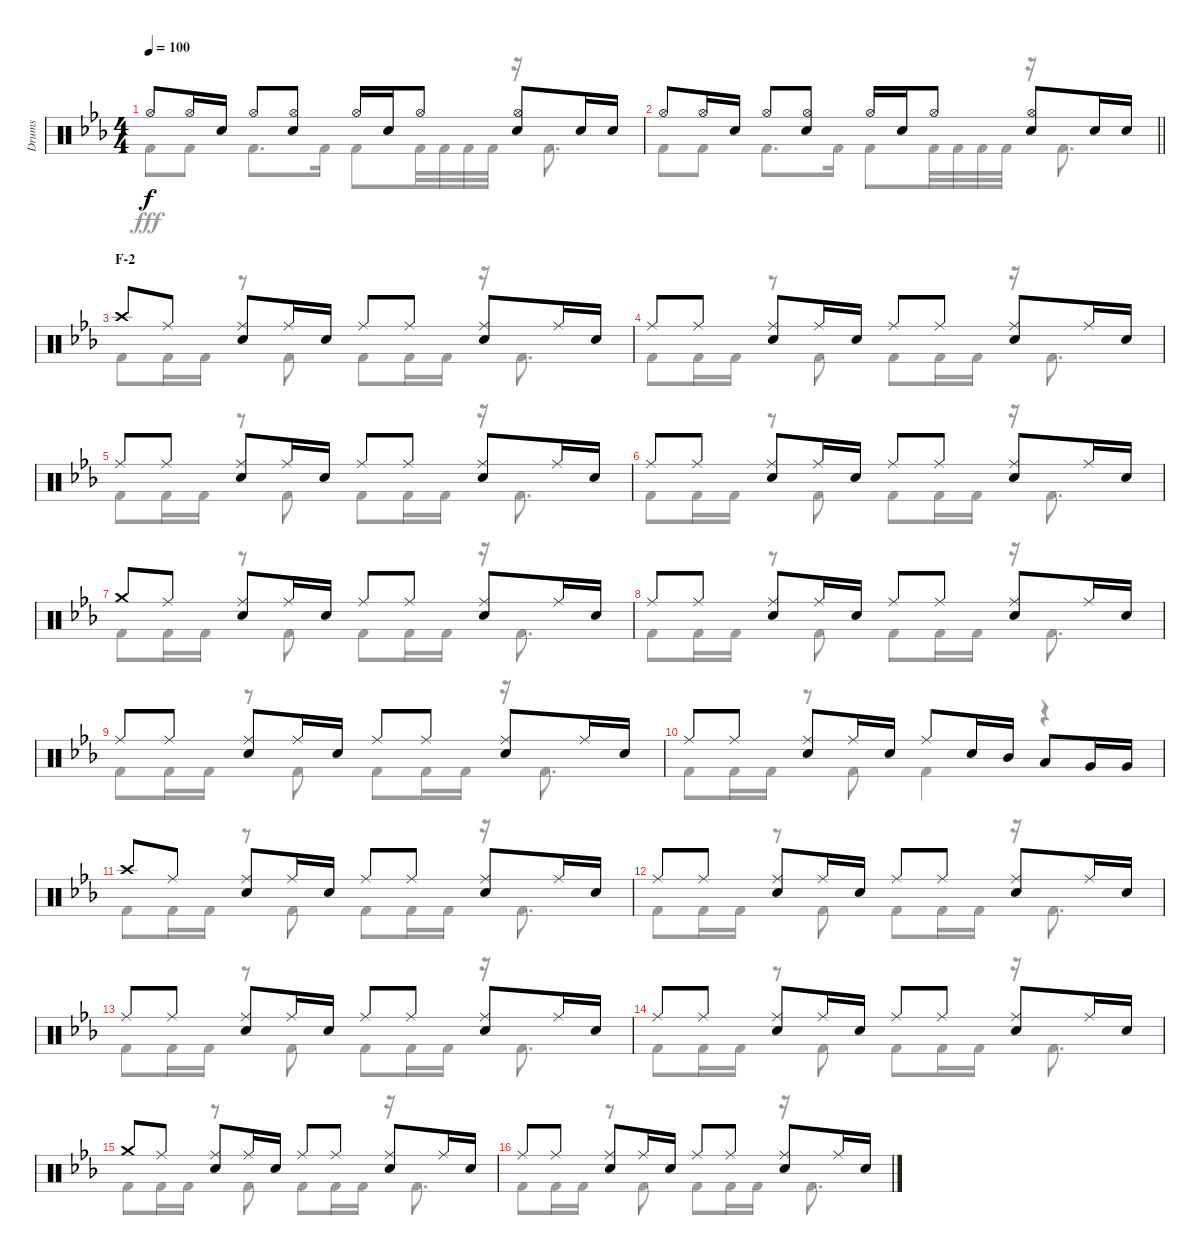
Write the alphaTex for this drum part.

\track ("Drums" "Drums") {instrument percussion}
\staff {score}
\articulation defaults
\voice
\ts (4 4)
\tempo 100
\clef neutral
\ks eb "Hi-Hat (open)".8{dy f} "Hi-Hat (open)".16 "Snare (hit) 2".16 "Hi-Hat (open)".8
("Hi-Hat (open)" "Snare (hit) 2").8 "Hi-Hat (open)".16 "Snare (hit) 2".16 "Hi-Hat (open)".8 ("Hi-Hat (open)" "Snare (hit) 2").8 "Snare (hit) 2".16 "Snare (hit) 2".16 |
\barLineRight lightlight "Hi-Hat (open)".8 "Hi-Hat (open)".16 "Snare (hit) 2".16 "Hi-Hat (open)".8
("Hi-Hat (open)" "Snare (hit) 2").8 "Hi-Hat (open)".16 "Snare (hit) 2".16 "Hi-Hat (open)".8 ("Hi-Hat (open)" "Snare (hit) 2").8 "Snare (hit) 2".16 "Snare (hit) 2".16 |
\section ("" "F-2")
"Crash high (hit)".8 "Ride (middle)".8 ("Ride (middle)" "Snare (hit) 2").8 "Ride (middle)".16 "Snare (hit) 2".16 "Ride (middle)".8 "Ride (middle)".8 ("Ride (middle)" "Snare (hit) 2").8 "Ride (middle)".16 "Snare (hit) 2".16 |
"Ride (middle)".8 "Ride (middle)".8 ("Ride (middle)" "Snare (hit) 2").8 "Ride (middle)".16 "Snare (hit) 2".16 "Ride (middle)".8 "Ride (middle)".8 ("Ride (middle)" "Snare (hit) 2").8 "Ride (middle)".16 "Snare (hit) 2".16 |
"Ride (middle)".8 "Ride (middle)".8 ("Ride (middle)" "Snare (hit) 2").8 "Ride (middle)".16 "Snare (hit) 2".16 "Ride (middle)".8 "Ride (middle)".8 ("Ride (middle)" "Snare (hit) 2").8 "Ride (middle)".16 "Snare (hit) 2".16 |
"Ride (middle)".8 "Ride (middle)".8 ("Ride (middle)" "Snare (hit) 2").8 "Ride (middle)".16 "Snare (hit) 2".16 "Ride (middle)".8 "Ride (middle)".8 ("Ride (middle)" "Snare (hit) 2").8 "Ride (middle)".16 "Snare (hit) 2".16 |
"Crash medium (hit)".8 "Ride (middle)".8 ("Ride (middle)" "Snare (hit) 2").8 "Ride (middle)".16 "Snare (hit) 2".16 "Ride (middle)".8 "Ride (middle)".8 ("Ride (middle)" "Snare (hit) 2").8 "Ride (middle)".16 "Snare (hit) 2".16 |
"Ride (middle)".8 "Ride (middle)".8 ("Ride (middle)" "Snare (hit) 2").8 "Ride (middle)".16 "Snare (hit) 2".16 "Ride (middle)".8 "Ride (middle)".8 ("Ride (middle)" "Snare (hit) 2").8 "Ride (middle)".16 "Snare (hit) 2".16 |
"Ride (middle)".8 "Ride (middle)".8 ("Ride (middle)" "Snare (hit) 2").8 "Ride (middle)".16 "Snare (hit) 2".16 "Ride (middle)".8 "Ride (middle)".8 ("Ride (middle)" "Snare (hit) 2").8 "Ride (middle)".16 "Snare (hit) 2".16 |
"Ride (middle)".8 "Ride (middle)".8 ("Ride (middle)" "Snare (hit) 2").8 "Ride (middle)".16 "Snare (hit) 2".16 "Ride (middle)".8 "Snare (hit) 2".16 "Mid Tom (hit)".16 "Low Tom (hit)".8 "Very Low Tom (hit)".16 "Very Low Tom (hit)".16 |
"Crash high (hit)".8 "Ride (middle)".8 ("Ride (middle)" "Snare (hit) 2").8 "Ride (middle)".16 "Snare (hit) 2".16 "Ride (middle)".8 "Ride (middle)".8 ("Ride (middle)" "Snare (hit) 2").8 "Ride (middle)".16 "Snare (hit) 2".16 |
"Ride (middle)".8 "Ride (middle)".8 ("Ride (middle)" "Snare (hit) 2").8 "Ride (middle)".16 "Snare (hit) 2".16 "Ride (middle)".8 "Ride (middle)".8 ("Ride (middle)" "Snare (hit) 2").8 "Ride (middle)".16 "Snare (hit) 2".16 |
"Ride (middle)".8 "Ride (middle)".8 ("Ride (middle)" "Snare (hit) 2").8 "Ride (middle)".16 "Snare (hit) 2".16 "Ride (middle)".8 "Ride (middle)".8 ("Ride (middle)" "Snare (hit) 2").8 "Ride (middle)".16 "Snare (hit) 2".16 |
"Ride (middle)".8 "Ride (middle)".8 ("Ride (middle)" "Snare (hit) 2").8 "Ride (middle)".16 "Snare (hit) 2".16 "Ride (middle)".8 "Ride (middle)".8 ("Ride (middle)" "Snare (hit) 2").8 "Ride (middle)".16 "Snare (hit) 2".16 |
"Crash medium (hit)".8 "Ride (middle)".8 ("Ride (middle)" "Snare (hit) 2").8 "Ride (middle)".16 "Snare (hit) 2".16 "Ride (middle)".8 "Ride (middle)".8 ("Ride (middle)" "Snare (hit) 2").8 "Ride (middle)".16 "Snare (hit) 2".16 |
"Ride (middle)".8 "Ride (middle)".8 ("Ride (middle)" "Snare (hit) 2").8 "Ride (middle)".16 "Snare (hit) 2".16 "Ride (middle)".8 "Ride (middle)".8 ("Ride (middle)" "Snare (hit) 2").8 "Ride (middle)".16 "Snare (hit) 2".16
\voice
\clef neutral
\ottava regular
\simile none
\ks eb "Kick (hit) 2".8{dy fff} "Kick (hit) 2".8 "Kick (hit) 2".8{d} "Kick (hit) 2".16 "Kick (hit) 2".8 "Kick (hit) 2".32 "Kick (hit) 2".32 "Kick (hit) 2".32 "Kick (hit) 2".32
r.16 "Kick (hit) 2".8{d} |
\barLineRight lightlight "Kick (hit) 2".8 "Kick (hit) 2".8 "Kick (hit) 2".8{d} "Kick (hit) 2".16 "Kick (hit) 2".8 "Kick (hit) 2".32 "Kick (hit) 2".32 "Kick (hit) 2".32 "Kick (hit) 2".32
r.16 "Kick (hit) 2".8{d} |
"Kick (hit) 2".8 "Kick (hit) 2".16 "Kick (hit) 2".16 r.8 "Kick (hit) 2".8 "Kick (hit) 2".8 "Kick (hit) 2".16 "Kick (hit) 2".16 r.16 "Kick (hit) 2".8{d} |
"Kick (hit) 2".8 "Kick (hit) 2".16 "Kick (hit) 2".16 r.8 "Kick (hit) 2".8 "Kick (hit) 2".8 "Kick (hit) 2".16 "Kick (hit) 2".16 r.16 "Kick (hit) 2".8{d} |
"Kick (hit) 2".8 "Kick (hit) 2".16 "Kick (hit) 2".16 r.8 "Kick (hit) 2".8 "Kick (hit) 2".8 "Kick (hit) 2".16 "Kick (hit) 2".16 r.16 "Kick (hit) 2".8{d} |
"Kick (hit) 2".8 "Kick (hit) 2".16 "Kick (hit) 2".16 r.8 "Kick (hit) 2".8 "Kick (hit) 2".8 "Kick (hit) 2".16 "Kick (hit) 2".16 r.16 "Kick (hit) 2".8{d} |
"Kick (hit) 2".8 "Kick (hit) 2".16 "Kick (hit) 2".16 r.8 "Kick (hit) 2".8 "Kick (hit) 2".8 "Kick (hit) 2".16 "Kick (hit) 2".16 r.16 "Kick (hit) 2".8{d} |
"Kick (hit) 2".8 "Kick (hit) 2".16 "Kick (hit) 2".16 r.8 "Kick (hit) 2".8 "Kick (hit) 2".8 "Kick (hit) 2".16 "Kick (hit) 2".16 r.16 "Kick (hit) 2".8{d} |
"Kick (hit) 2".8 "Kick (hit) 2".16 "Kick (hit) 2".16 r.8 "Kick (hit) 2".8 "Kick (hit) 2".8 "Kick (hit) 2".16 "Kick (hit) 2".16 r.16 "Kick (hit) 2".8{d} |
"Kick (hit) 2".8 "Kick (hit) 2".16 "Kick (hit) 2".16 r.8 "Kick (hit) 2".8 "Kick (hit) 2".4 r.4 |
"Kick (hit) 2".8 "Kick (hit) 2".16 "Kick (hit) 2".16 r.8 "Kick (hit) 2".8 "Kick (hit) 2".8 "Kick (hit) 2".16 "Kick (hit) 2".16 r.16 "Kick (hit) 2".8{d} |
"Kick (hit) 2".8 "Kick (hit) 2".16 "Kick (hit) 2".16 r.8 "Kick (hit) 2".8 "Kick (hit) 2".8 "Kick (hit) 2".16 "Kick (hit) 2".16 r.16 "Kick (hit) 2".8{d} |
"Kick (hit) 2".8 "Kick (hit) 2".16 "Kick (hit) 2".16 r.8 "Kick (hit) 2".8 "Kick (hit) 2".8 "Kick (hit) 2".16 "Kick (hit) 2".16 r.16 "Kick (hit) 2".8{d} |
"Kick (hit) 2".8 "Kick (hit) 2".16 "Kick (hit) 2".16 r.8 "Kick (hit) 2".8 "Kick (hit) 2".8 "Kick (hit) 2".16 "Kick (hit) 2".16 r.16 "Kick (hit) 2".8{d} |
"Kick (hit) 2".8 "Kick (hit) 2".16 "Kick (hit) 2".16 r.8 "Kick (hit) 2".8 "Kick (hit) 2".8 "Kick (hit) 2".16 "Kick (hit) 2".16 r.16 "Kick (hit) 2".8{d} |
"Kick (hit) 2".8 "Kick (hit) 2".16 "Kick (hit) 2".16 r.8 "Kick (hit) 2".8 "Kick (hit) 2".8 "Kick (hit) 2".16 "Kick (hit) 2".16 r.16 "Kick (hit) 2".8{d}
